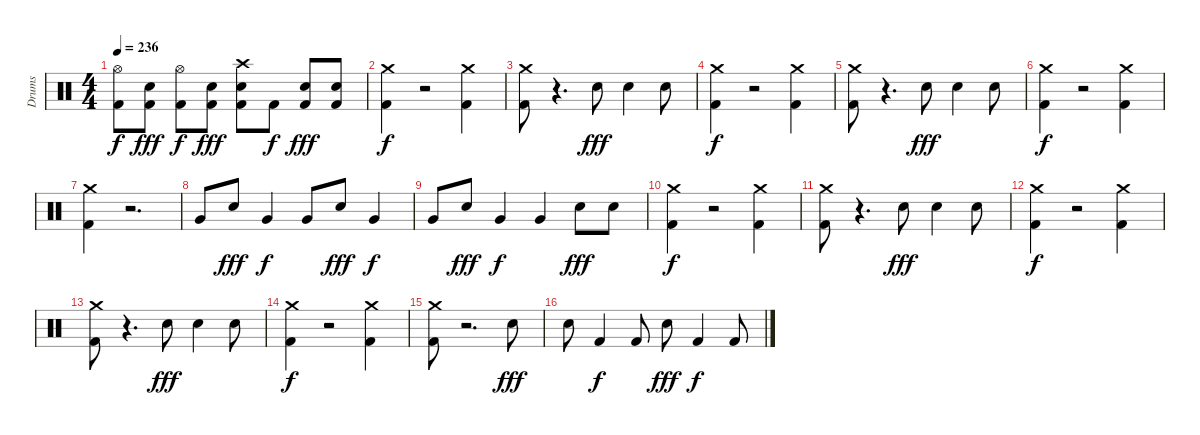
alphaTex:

\track ("Drums" "Drums") {instrument percussion}
\staff {score}
\articulation defaults
\ts (4 4)
\tempo 236
\clef neutral
\ks c
("Hi-Hat (open)" "Kick (hit) 2").8{dy f} ("Kick (hit) 2" "Electric Snare (hit)").8{dy fff} ("Hi-Hat (open)" "Kick (hit) 2").8{dy f} ("Kick (hit) 2" "Electric Snare (hit)").8{dy fff} ("Crash high (hit)" "Kick (hit) 2" "Electric Snare (hit)").8 "Kick (hit) 2".8{dy f} ("Kick (hit) 2" "Electric Snare (hit)").8{dy fff} ("Kick (hit) 2" "Electric Snare (hit)").8 |
("Crash medium (hit)" "Kick (hit) 2").4{dy f} r.2 ("Crash medium (hit)" "Kick (hit) 2").4 |
("Crash medium (hit)" "Kick (hit) 2").8 r.4{d} "Electric Snare (hit)".8{dy fff} "Electric Snare (hit)".4 "Electric Snare (hit)".8 |
("Crash medium (hit)" "Kick (hit) 2").4{dy f} r.2 ("Crash medium (hit)" "Kick (hit) 2").4 |
("Crash medium (hit)" "Kick (hit) 2").8 r.4{d} "Electric Snare (hit)".8{dy fff} "Electric Snare (hit)".4 "Electric Snare (hit)".8 |
("Crash medium (hit)" "Kick (hit) 2").4{dy f} r.2 ("Crash medium (hit)" "Kick (hit) 2").4 |
("Crash medium (hit)" "Kick (hit) 2").4 r.2{d} |
"Very Low Tom (hit)".8 "Electric Snare (hit)".8{dy fff} "Very Low Tom (hit)".4{dy f} "Very Low Tom (hit)".8 "Electric Snare (hit)".8{dy fff} "Very Low Tom (hit)".4{dy f} |
"Very Low Tom (hit)".8 "Electric Snare (hit)".8{dy fff} "Very Low Tom (hit)".4{dy f} "Very Low Tom (hit)".4 "Electric Snare (hit)".8{dy fff} "Electric Snare (hit)".8 |
("Crash medium (hit)" "Kick (hit) 2").4{dy f} r.2 ("Crash medium (hit)" "Kick (hit) 2").4 |
("Crash medium (hit)" "Kick (hit) 2").8 r.4{d} "Electric Snare (hit)".8{dy fff} "Electric Snare (hit)".4 "Electric Snare (hit)".8 |
("Crash medium (hit)" "Kick (hit) 2").4{dy f} r.2 ("Crash medium (hit)" "Kick (hit) 2").4 |
("Crash medium (hit)" "Kick (hit) 2").8 r.4{d} "Electric Snare (hit)".8{dy fff} "Electric Snare (hit)".4 "Electric Snare (hit)".8 |
("Crash medium (hit)" "Kick (hit) 2").4{dy f} r.2 ("Crash medium (hit)" "Kick (hit) 2").4 |
("Crash medium (hit)" "Kick (hit) 2").8 r.2{d} "Electric Snare (hit)".8{dy fff} |
"Electric Snare (hit)".8 "Kick (hit) 2".4{dy f} "Kick (hit) 2".8 "Electric Snare (hit)".8{dy fff} "Kick (hit) 2".4{dy f} "Kick (hit) 2".8
